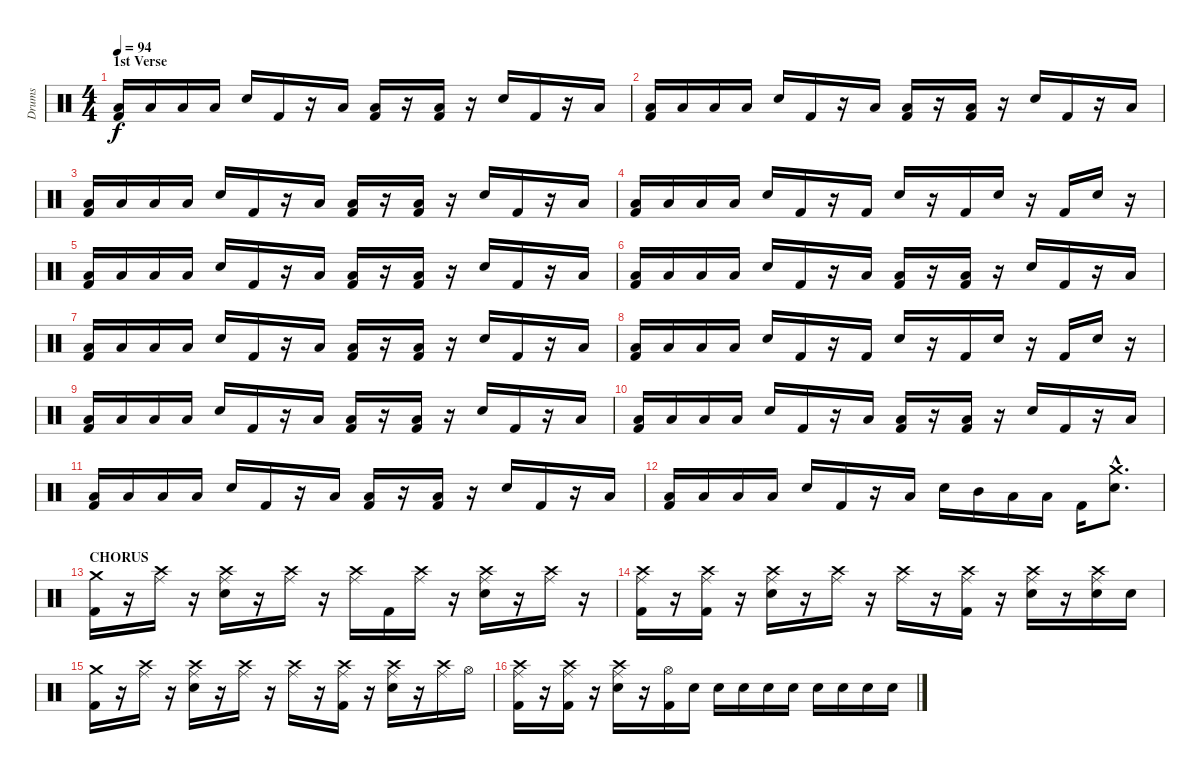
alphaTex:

\track ("Drums" "Drums") {instrument percussion}
\staff {score}
\articulation defaults
\ts (4 4)
\section ("" "1st Verse")
\tempo 94
\clef neutral
\ks c
("Low Floor Tom (hit)" "Kick (hit) 2").16{dy f} "Low Floor Tom (hit)".16 "Low Floor Tom (hit)".16 "Low Floor Tom (hit)".16 "Electric Snare (hit)".16 "Kick (hit) 2".16 r.16 "Low Tom (hit)".16 ("Low Floor Tom (hit)" "Kick (hit) 2").16 r.16 ("Low Floor Tom (hit)" "Kick (hit) 2").16 r.16 "Electric Snare (hit)".16 "Kick (hit) 2".16 r.16 "Low Tom (hit)".16 |
("Low Floor Tom (hit)" "Kick (hit) 2").16 "Low Floor Tom (hit)".16 "Low Floor Tom (hit)".16 "Low Floor Tom (hit)".16 "Electric Snare (hit)".16 "Kick (hit) 2".16 r.16 "Low Tom (hit)".16 ("Low Floor Tom (hit)" "Kick (hit) 2").16 r.16 ("Low Floor Tom (hit)" "Kick (hit) 2").16 r.16 "Electric Snare (hit)".16 "Kick (hit) 2".16 r.16 "Low Tom (hit)".16 |
("Low Floor Tom (hit)" "Kick (hit) 2").16 "Low Floor Tom (hit)".16 "Low Floor Tom (hit)".16 "Low Floor Tom (hit)".16 "Electric Snare (hit)".16 "Kick (hit) 2".16 r.16 "Low Tom (hit)".16 ("Low Floor Tom (hit)" "Kick (hit) 2").16 r.16 ("Low Floor Tom (hit)" "Kick (hit) 2").16 r.16 "Electric Snare (hit)".16 "Kick (hit) 2".16 r.16 "Low Tom (hit)".16 |
("Low Floor Tom (hit)" "Kick (hit) 2").16 "Low Floor Tom (hit)".16 "Low Floor Tom (hit)".16 "Low Floor Tom (hit)".16 "Electric Snare (hit)".16 "Kick (hit) 2".16 r.16 "Kick (hit) 2".16 "Electric Snare (hit)".16 r.16 "Kick (hit) 2".16 "Electric Snare (hit)".16 r.16 "Kick (hit) 2".16 "Electric Snare (hit)".16 r.16 |
("Low Floor Tom (hit)" "Kick (hit) 2").16 "Low Floor Tom (hit)".16 "Low Floor Tom (hit)".16 "Low Floor Tom (hit)".16 "Electric Snare (hit)".16 "Kick (hit) 2".16 r.16 "Low Tom (hit)".16 ("Low Floor Tom (hit)" "Kick (hit) 2").16 r.16 ("Low Floor Tom (hit)" "Kick (hit) 2").16 r.16 "Electric Snare (hit)".16 "Kick (hit) 2".16 r.16 "Low Tom (hit)".16 |
("Low Floor Tom (hit)" "Kick (hit) 2").16 "Low Floor Tom (hit)".16 "Low Floor Tom (hit)".16 "Low Floor Tom (hit)".16 "Electric Snare (hit)".16 "Kick (hit) 2".16 r.16 "Low Tom (hit)".16 ("Low Floor Tom (hit)" "Kick (hit) 2").16 r.16 ("Low Floor Tom (hit)" "Kick (hit) 2").16 r.16 "Electric Snare (hit)".16 "Kick (hit) 2".16 r.16 "Low Tom (hit)".16 |
("Low Floor Tom (hit)" "Kick (hit) 2").16 "Low Floor Tom (hit)".16 "Low Floor Tom (hit)".16 "Low Floor Tom (hit)".16 "Electric Snare (hit)".16 "Kick (hit) 2".16 r.16 "Low Tom (hit)".16 ("Low Floor Tom (hit)" "Kick (hit) 2").16 r.16 ("Low Floor Tom (hit)" "Kick (hit) 2").16 r.16 "Electric Snare (hit)".16 "Kick (hit) 2".16 r.16 "Low Tom (hit)".16 |
("Low Floor Tom (hit)" "Kick (hit) 2").16 "Low Floor Tom (hit)".16 "Low Floor Tom (hit)".16 "Low Floor Tom (hit)".16 "Electric Snare (hit)".16 "Kick (hit) 2".16 r.16 "Kick (hit) 2".16 "Electric Snare (hit)".16 r.16 "Kick (hit) 2".16 "Electric Snare (hit)".16 r.16 "Kick (hit) 2".16 "Electric Snare (hit)".16 r.16 |
("Low Floor Tom (hit)" "Kick (hit) 2").16 "Low Floor Tom (hit)".16 "Low Floor Tom (hit)".16 "Low Floor Tom (hit)".16 "Electric Snare (hit)".16 "Kick (hit) 2".16 r.16 "Low Tom (hit)".16 ("Low Floor Tom (hit)" "Kick (hit) 2").16 r.16 ("Low Floor Tom (hit)" "Kick (hit) 2").16 r.16 "Electric Snare (hit)".16 "Kick (hit) 2".16 r.16 "Low Tom (hit)".16 |
("Low Floor Tom (hit)" "Kick (hit) 2").16 "Low Floor Tom (hit)".16 "Low Floor Tom (hit)".16 "Low Floor Tom (hit)".16 "Electric Snare (hit)".16 "Kick (hit) 2".16 r.16 "Low Tom (hit)".16 ("Low Floor Tom (hit)" "Kick (hit) 2").16 r.16 ("Low Floor Tom (hit)" "Kick (hit) 2").16 r.16 "Electric Snare (hit)".16 "Kick (hit) 2".16 r.16 "Low Tom (hit)".16 |
("Low Floor Tom (hit)" "Kick (hit) 2").16 "Low Floor Tom (hit)".16 "Low Floor Tom (hit)".16 "Low Floor Tom (hit)".16 "Electric Snare (hit)".16 "Kick (hit) 2".16 r.16 "Low Tom (hit)".16 ("Low Floor Tom (hit)" "Kick (hit) 2").16 r.16 ("Low Floor Tom (hit)" "Kick (hit) 2").16 r.16 "Electric Snare (hit)".16 "Kick (hit) 2".16 r.16 "Low Tom (hit)".16 |
("Low Floor Tom (hit)" "Kick (hit) 2").16 "Low Floor Tom (hit)".16 "Low Floor Tom (hit)".16 "Low Floor Tom (hit)".16 "Electric Snare (hit)".16 "Kick (hit) 2".16 r.16 "Low Tom (hit)".16 "Electric Snare (hit)".16 "Mid Tom (hit)".16 "Low Tom (hit)".16 "Low Floor Tom (hit)".16 "Kick (hit) 2".16 ("Crash medium (hit)"{hac} "Electric Snare (hit)"{hac}).8{d} |
\section ("" "CHORUS")
("Crash medium (hit)" "Kick (hit) 2").16 r.16 ("Ride (middle)" "Crash high (hit)").16 r.16 ("Ride (middle)" "Crash high (hit)" "Electric Snare (hit)").16 r.16 ("Ride (middle)" "Crash high (hit)").16 r.16 ("Ride (middle)" "Crash high (hit)").16 "Kick (hit) 2".16 ("Ride (middle)" "Crash high (hit)").16 r.16 ("Ride (middle)" "Crash high (hit)" "Electric Snare (hit)").16 r.16 ("Ride (middle)" "Crash high (hit)").16 r.16 |
("Ride (middle)" "Crash high (hit)" "Kick (hit) 2").16 r.16 ("Ride (middle)" "Crash high (hit)" "Kick (hit) 2").16 r.16 ("Ride (middle)" "Crash high (hit)" "Electric Snare (hit)").16 r.16 ("Ride (middle)" "Crash high (hit)").16 r.16 ("Ride (middle)" "Crash high (hit)").16 r.16 ("Ride (middle)" "Crash high (hit)" "Kick (hit) 2").16 r.16 ("Ride (middle)" "Crash high (hit)" "Electric Snare (hit)").16 r.16 ("Ride (middle)" "Crash high (hit)" "Electric Snare (hit)").16 "Electric Snare (hit)".16 |
("Crash medium (hit)" "Kick (hit) 2").16 r.16 ("Ride (middle)" "Crash high (hit)").16 r.16 ("Ride (middle)" "Crash high (hit)" "Electric Snare (hit)").16 r.16 ("Ride (middle)" "Crash high (hit)").16 r.16 ("Ride (middle)" "Crash high (hit)").16 r.16 ("Ride (middle)" "Crash high (hit)" "Kick (hit) 2").16 r.16 ("Ride (middle)" "Crash high (hit)" "Electric Snare (hit)").16 r.16 ("Ride (middle)" "Crash high (hit)").16 "Hi-Hat (open)".16 |
("Ride (middle)" "Crash high (hit)" "Kick (hit) 2").16 r.16 ("Ride (middle)" "Crash high (hit)" "Kick (hit) 2").16 r.16 ("Ride (middle)" "Crash high (hit)" "Electric Snare (hit)").16 r.16 ("Hi-Hat (open)" "Kick (hit) 2").16 "Electric Snare (hit)".16 "Electric Snare (hit)".16 "Electric Snare (hit)".16 "Electric Snare (hit)".16 "Electric Snare (hit)".16 "Electric Snare (hit)".16 "Electric Snare (hit)".16 "Electric Snare (hit)".16 "Electric Snare (hit)".16
